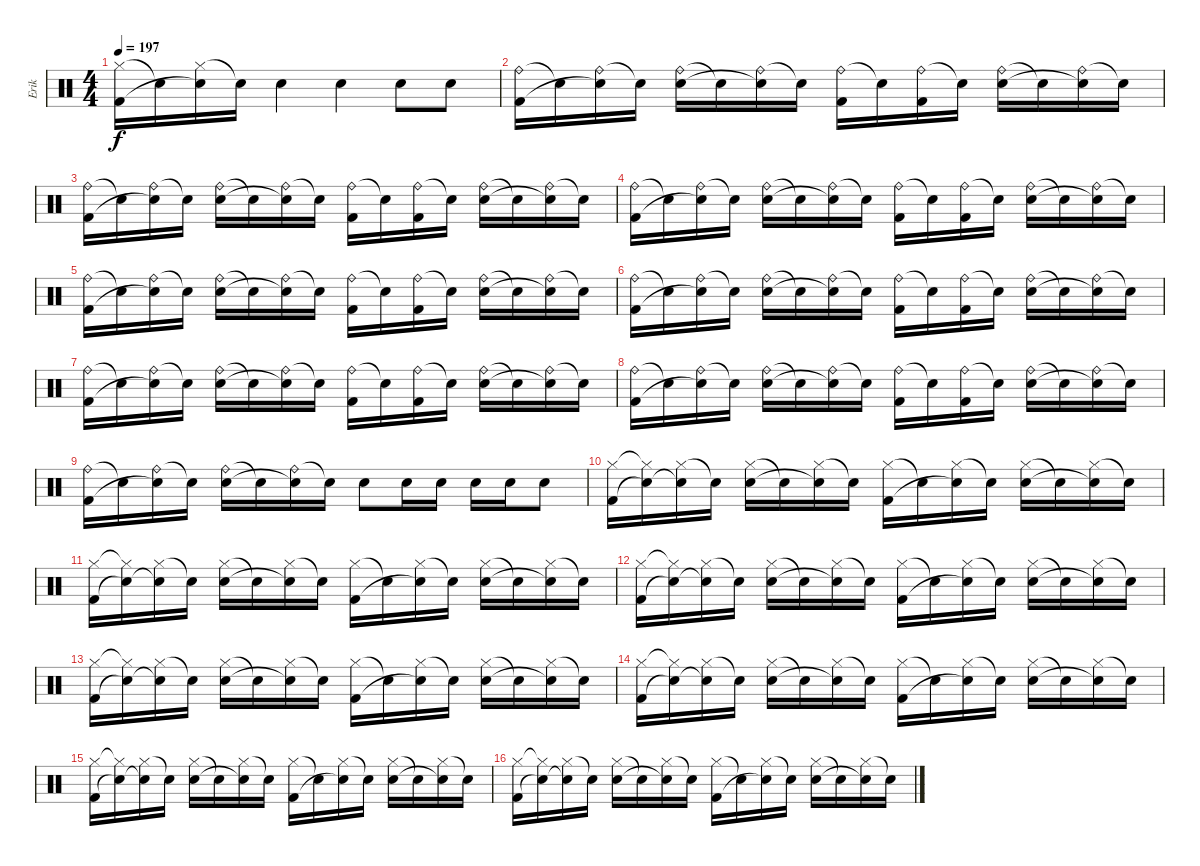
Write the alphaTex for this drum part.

\track ("Erik" "Erik") {instrument percussion}
\staff {score}
\articulation defaults
\ts (4 4)
\tempo 197
\clef neutral
\ks c
("Hi-Hat (closed)" "Kick (hit) 2").16{dy f} "Snare (hit)"{t}.16 ("Hi-Hat (closed)" "Snare (hit)"{t}).16 "Snare (hit)"{t}.16 "Electric Snare (hit)".4 "Electric Snare (hit)".4 "Electric Snare (hit)".8 "Electric Snare (hit)".8 |
("Ride (bell)" "Kick (hit) 2").16 "Snare (hit)"{t}.16 ("Ride (bell)" "Snare (hit)"{t}).16 "Snare (hit)"{t}.16 ("Ride (bell)" "Electric Snare (hit)").16 "Snare (hit)"{t}.16 ("Ride (bell)" "Snare (hit)"{t}).16 "Snare (hit)"{t}.16 ("Ride (bell)" "Kick (hit) 2").16 "Snare (hit)"{t}.16 ("Ride (bell)" "Kick (hit) 2").16 "Snare (hit)"{t}.16 ("Ride (bell)" "Electric Snare (hit)").16 "Snare (hit)"{t}.16 ("Ride (bell)" "Snare (hit)"{t}).16 "Snare (hit)"{t}.16 |
("Ride (bell)" "Kick (hit) 2").16 "Snare (hit)"{t}.16 ("Ride (bell)" "Snare (hit)"{t}).16 "Snare (hit)"{t}.16 ("Ride (bell)" "Electric Snare (hit)").16 "Snare (hit)"{t}.16 ("Ride (bell)" "Snare (hit)"{t}).16 "Snare (hit)"{t}.16 ("Ride (bell)" "Kick (hit) 2").16 "Snare (hit)"{t}.16 ("Ride (bell)" "Kick (hit) 2").16 "Snare (hit)"{t}.16 ("Ride (bell)" "Electric Snare (hit)").16 "Snare (hit)"{t}.16 ("Ride (bell)" "Snare (hit)"{t}).16 "Snare (hit)"{t}.16 |
("Ride (bell)" "Kick (hit) 2").16 "Snare (hit)"{t}.16 ("Ride (bell)" "Snare (hit)"{t}).16 "Snare (hit)"{t}.16 ("Ride (bell)" "Electric Snare (hit)").16 "Snare (hit)"{t}.16 ("Ride (bell)" "Snare (hit)"{t}).16 "Snare (hit)"{t}.16 ("Ride (bell)" "Kick (hit) 2").16 "Snare (hit)"{t}.16 ("Ride (bell)" "Kick (hit) 2").16 "Snare (hit)"{t}.16 ("Ride (bell)" "Electric Snare (hit)").16 "Snare (hit)"{t}.16 ("Ride (bell)" "Snare (hit)"{t}).16 "Snare (hit)"{t}.16 |
("Ride (bell)" "Kick (hit) 2").16 "Snare (hit)"{t}.16 ("Ride (bell)" "Snare (hit)"{t}).16 "Snare (hit)"{t}.16 ("Ride (bell)" "Electric Snare (hit)").16 "Snare (hit)"{t}.16 ("Ride (bell)" "Snare (hit)"{t}).16 "Snare (hit)"{t}.16 ("Ride (bell)" "Kick (hit) 2").16 "Snare (hit)"{t}.16 ("Ride (bell)" "Kick (hit) 2").16 "Snare (hit)"{t}.16 ("Ride (bell)" "Electric Snare (hit)").16 "Snare (hit)"{t}.16 ("Ride (bell)" "Snare (hit)"{t}).16 "Snare (hit)"{t}.16 |
("Ride (bell)" "Kick (hit) 2").16 "Snare (hit)"{t}.16 ("Ride (bell)" "Snare (hit)"{t}).16 "Snare (hit)"{t}.16 ("Ride (bell)" "Electric Snare (hit)").16 "Snare (hit)"{t}.16 ("Ride (bell)" "Snare (hit)"{t}).16 "Snare (hit)"{t}.16 ("Ride (bell)" "Kick (hit) 2").16 "Snare (hit)"{t}.16 ("Ride (bell)" "Kick (hit) 2").16 "Snare (hit)"{t}.16 ("Ride (bell)" "Electric Snare (hit)").16 "Snare (hit)"{t}.16 ("Ride (bell)" "Snare (hit)"{t}).16 "Snare (hit)"{t}.16 |
("Ride (bell)" "Kick (hit) 2").16 "Snare (hit)"{t}.16 ("Ride (bell)" "Snare (hit)"{t}).16 "Snare (hit)"{t}.16 ("Ride (bell)" "Electric Snare (hit)").16 "Snare (hit)"{t}.16 ("Ride (bell)" "Snare (hit)"{t}).16 "Snare (hit)"{t}.16 ("Ride (bell)" "Kick (hit) 2").16 "Snare (hit)"{t}.16 ("Ride (bell)" "Kick (hit) 2").16 "Snare (hit)"{t}.16 ("Ride (bell)" "Electric Snare (hit)").16 "Snare (hit)"{t}.16 ("Ride (bell)" "Snare (hit)"{t}).16 "Snare (hit)"{t}.16 |
("Ride (bell)" "Kick (hit) 2").16 "Snare (hit)"{t}.16 ("Ride (bell)" "Snare (hit)"{t}).16 "Snare (hit)"{t}.16 ("Ride (bell)" "Electric Snare (hit)").16 "Snare (hit)"{t}.16 ("Ride (bell)" "Snare (hit)"{t}).16 "Snare (hit)"{t}.16 ("Ride (bell)" "Kick (hit) 2").16 "Snare (hit)"{t}.16 ("Ride (bell)" "Kick (hit) 2").16 "Snare (hit)"{t}.16 ("Ride (bell)" "Electric Snare (hit)").16 "Snare (hit)"{t}.16 ("Ride (bell)" "Snare (hit)"{t}).16 "Snare (hit)"{t}.16 |
("Ride (bell)" "Kick (hit) 2").16 "Snare (hit)"{t}.16 ("Ride (bell)" "Snare (hit)"{t}).16 "Snare (hit)"{t}.16 ("Ride (bell)" "Electric Snare (hit)").16 "Snare (hit)"{t}.16 ("Ride (bell)" "Snare (hit)"{t}).16 "Snare (hit)"{t}.16 "Electric Snare (hit)".8 "Electric Snare (hit)".16 "Electric Snare (hit)".16 "Electric Snare (hit)".16 "Electric Snare (hit)".16 "Electric Snare (hit)".8 |
("Hi-Hat (closed)" "Kick (hit) 2").16 ("Hi-Hat (closed)"{t} "Electric Snare (hit)"{t}).16 ("Hi-Hat (closed)" "Snare (hit)"{t}).16 "Snare (hit)"{t}.16 ("Hi-Hat (closed)" "Electric Snare (hit)").16 "Snare (hit)"{t}.16 ("Hi-Hat (closed)" "Snare (hit)"{t}).16 "Snare (hit)"{t}.16 ("Hi-Hat (closed)" "Kick (hit) 2").16 "Snare (hit)"{t}.16 ("Hi-Hat (closed)" "Snare (hit)"{t}).16 "Snare (hit)"{t}.16 ("Hi-Hat (closed)" "Electric Snare (hit)").16 "Snare (hit)"{t}.16 ("Hi-Hat (closed)" "Snare (hit)"{t}).16 "Snare (hit)"{t}.16 |
("Hi-Hat (closed)" "Kick (hit) 2").16 ("Hi-Hat (closed)"{t} "Electric Snare (hit)"{t}).16 ("Hi-Hat (closed)" "Snare (hit)"{t}).16 "Snare (hit)"{t}.16 ("Hi-Hat (closed)" "Electric Snare (hit)").16 "Snare (hit)"{t}.16 ("Hi-Hat (closed)" "Snare (hit)"{t}).16 "Snare (hit)"{t}.16 ("Hi-Hat (closed)" "Kick (hit) 2").16 "Snare (hit)"{t}.16 ("Hi-Hat (closed)" "Snare (hit)"{t}).16 "Snare (hit)"{t}.16 ("Hi-Hat (closed)" "Electric Snare (hit)").16 "Snare (hit)"{t}.16 ("Hi-Hat (closed)" "Snare (hit)"{t}).16 "Snare (hit)"{t}.16 |
("Hi-Hat (closed)" "Kick (hit) 2").16 ("Hi-Hat (closed)"{t} "Electric Snare (hit)"{t}).16 ("Hi-Hat (closed)" "Snare (hit)"{t}).16 "Snare (hit)"{t}.16 ("Hi-Hat (closed)" "Electric Snare (hit)").16 "Snare (hit)"{t}.16 ("Hi-Hat (closed)" "Snare (hit)"{t}).16 "Snare (hit)"{t}.16 ("Hi-Hat (closed)" "Kick (hit) 2").16 "Snare (hit)"{t}.16 ("Hi-Hat (closed)" "Snare (hit)"{t}).16 "Snare (hit)"{t}.16 ("Hi-Hat (closed)" "Electric Snare (hit)").16 "Snare (hit)"{t}.16 ("Hi-Hat (closed)" "Snare (hit)"{t}).16 "Snare (hit)"{t}.16 |
("Hi-Hat (closed)" "Kick (hit) 2").16 ("Hi-Hat (closed)"{t} "Electric Snare (hit)"{t}).16 ("Hi-Hat (closed)" "Snare (hit)"{t}).16 "Snare (hit)"{t}.16 ("Hi-Hat (closed)" "Electric Snare (hit)").16 "Snare (hit)"{t}.16 ("Hi-Hat (closed)" "Snare (hit)"{t}).16 "Snare (hit)"{t}.16 ("Hi-Hat (closed)" "Kick (hit) 2").16 "Snare (hit)"{t}.16 ("Hi-Hat (closed)" "Snare (hit)"{t}).16 "Snare (hit)"{t}.16 ("Hi-Hat (closed)" "Electric Snare (hit)").16 "Snare (hit)"{t}.16 ("Hi-Hat (closed)" "Snare (hit)"{t}).16 "Snare (hit)"{t}.16 |
("Hi-Hat (closed)" "Kick (hit) 2").16 ("Hi-Hat (closed)"{t} "Electric Snare (hit)"{t}).16 ("Hi-Hat (closed)" "Snare (hit)"{t}).16 "Snare (hit)"{t}.16 ("Hi-Hat (closed)" "Electric Snare (hit)").16 "Snare (hit)"{t}.16 ("Hi-Hat (closed)" "Snare (hit)"{t}).16 "Snare (hit)"{t}.16 ("Hi-Hat (closed)" "Kick (hit) 2").16 "Snare (hit)"{t}.16 ("Hi-Hat (closed)" "Snare (hit)"{t}).16 "Snare (hit)"{t}.16 ("Hi-Hat (closed)" "Electric Snare (hit)").16 "Snare (hit)"{t}.16 ("Hi-Hat (closed)" "Snare (hit)"{t}).16 "Snare (hit)"{t}.16 |
("Hi-Hat (closed)" "Kick (hit) 2").16 ("Hi-Hat (closed)"{t} "Electric Snare (hit)"{t}).16 ("Hi-Hat (closed)" "Snare (hit)"{t}).16 "Snare (hit)"{t}.16 ("Hi-Hat (closed)" "Electric Snare (hit)").16 "Snare (hit)"{t}.16 ("Hi-Hat (closed)" "Snare (hit)"{t}).16 "Snare (hit)"{t}.16 ("Hi-Hat (closed)" "Kick (hit) 2").16 "Snare (hit)"{t}.16 ("Hi-Hat (closed)" "Snare (hit)"{t}).16 "Snare (hit)"{t}.16 ("Hi-Hat (closed)" "Electric Snare (hit)").16 "Snare (hit)"{t}.16 ("Hi-Hat (closed)" "Snare (hit)"{t}).16 "Snare (hit)"{t}.16 |
("Hi-Hat (closed)" "Kick (hit) 2").16 ("Hi-Hat (closed)"{t} "Electric Snare (hit)"{t}).16 ("Hi-Hat (closed)" "Snare (hit)"{t}).16 "Snare (hit)"{t}.16 ("Hi-Hat (closed)" "Electric Snare (hit)").16 "Snare (hit)"{t}.16 ("Hi-Hat (closed)" "Snare (hit)"{t}).16 "Snare (hit)"{t}.16 ("Hi-Hat (closed)" "Kick (hit) 2").16 "Snare (hit)"{t}.16 ("Hi-Hat (closed)" "Snare (hit)"{t}).16 "Snare (hit)"{t}.16 ("Hi-Hat (closed)" "Electric Snare (hit)").16 "Snare (hit)"{t}.16 ("Hi-Hat (closed)" "Snare (hit)"{t}).16 "Snare (hit)"{t}.16
